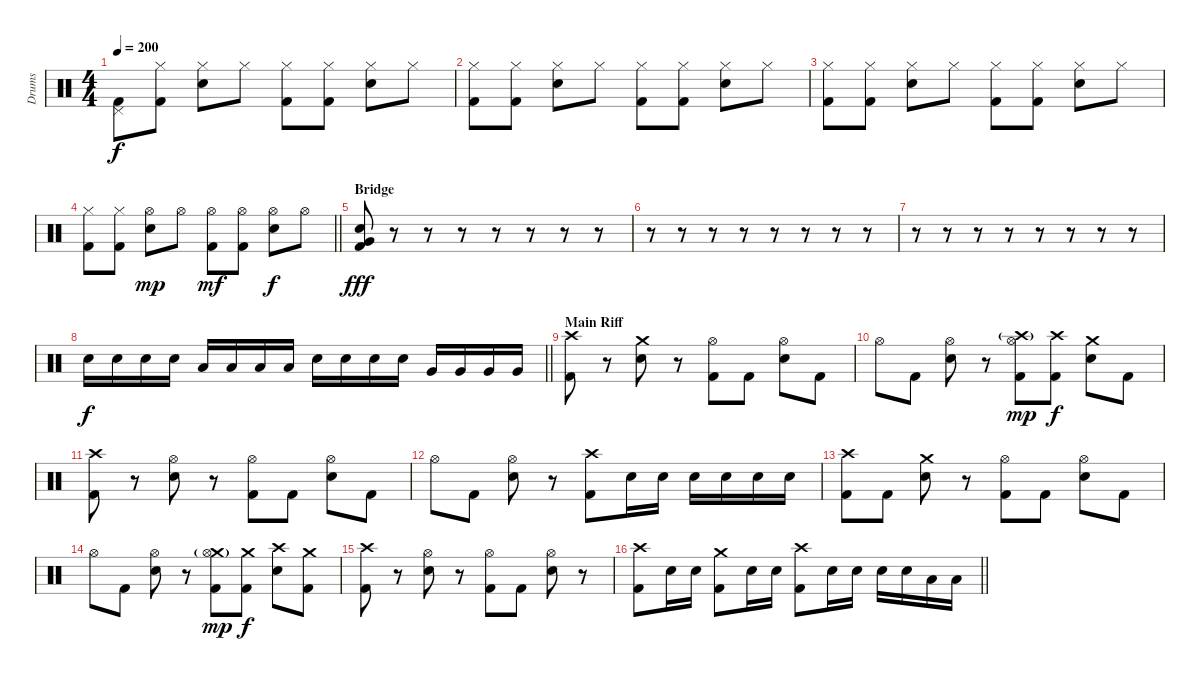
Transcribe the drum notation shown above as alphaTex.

\track ("Drums" "Drums") {instrument percussion}
\staff {score}
\articulation defaults
\ts (4 4)
\tempo 200
\clef neutral
\ks c
("Pedal Hi-Hat (hit)" "Kick (hit) 2").8{dy f} ("Hi-Hat (closed)" "Kick (hit) 2").8 ("Hi-Hat (closed)" "Electric Snare (hit)").8 "Hi-Hat (closed)".8 ("Hi-Hat (closed)" "Kick (hit) 2").8 ("Hi-Hat (closed)" "Kick (hit) 2").8 ("Hi-Hat (closed)" "Electric Snare (hit)").8 "Hi-Hat (closed)".8 |
("Hi-Hat (closed)" "Kick (hit) 2").8 ("Hi-Hat (closed)" "Kick (hit) 2").8 ("Hi-Hat (closed)" "Electric Snare (hit)").8 "Hi-Hat (closed)".8 ("Hi-Hat (closed)" "Kick (hit) 2").8 ("Hi-Hat (closed)" "Kick (hit) 2").8 ("Hi-Hat (closed)" "Electric Snare (hit)").8 "Hi-Hat (closed)".8 |
("Hi-Hat (closed)" "Kick (hit) 2").8 ("Hi-Hat (closed)" "Kick (hit) 2").8 ("Hi-Hat (closed)" "Electric Snare (hit)").8 "Hi-Hat (closed)".8 ("Hi-Hat (closed)" "Kick (hit) 2").8 ("Hi-Hat (closed)" "Kick (hit) 2").8 ("Hi-Hat (closed)" "Electric Snare (hit)").8 "Hi-Hat (closed)".8 |
\barLineRight lightlight
("Hi-Hat (closed)" "Kick (hit) 2").8 ("Hi-Hat (closed)" "Kick (hit) 2").8 ("Hi-Hat (open)" "Electric Snare (hit)").8{dy mp} "Hi-Hat (open)".8 ("Hi-Hat (open)" "Kick (hit) 2").8{dy mf} ("Hi-Hat (open)" "Kick (hit) 2").8 ("Hi-Hat (open)" "Electric Snare (hit)").8{dy f} "Hi-Hat (open)".8 |
\section ("" "Bridge")
("Very Low Tom (hit)" "Electric Snare (hit)" "Kick (hit) 2").8{dy fff} r.8 r.8 r.8 r.8 r.8 r.8 r.8 |
r.8 r.8 r.8 r.8 r.8 r.8 r.8 r.8 |
r.8 r.8 r.8 r.8 r.8 r.8 r.8 r.8 |
\barLineRight lightlight "Electric Snare (hit)".16{dy f} "Electric Snare (hit)".16 "Electric Snare (hit)".16 "Electric Snare (hit)".16 "Low Tom (hit)".16 "Low Tom (hit)".16 "Low Tom (hit)".16 "Low Tom (hit)".16 "Electric Snare (hit)".16 "Electric Snare (hit)".16 "Electric Snare (hit)".16 "Electric Snare (hit)".16 "Very Low Tom (hit)".16 "Very Low Tom (hit)".16 "Very Low Tom (hit)".16 "Very Low Tom (hit)".16
|
\section ("" "Main Riff")
("Crash high (hit)" "Kick (hit) 2").8 r.8 ("Crash medium (hit)" "Electric Snare (hit)").8 r.8 ("Hi-Hat (open)" "Kick (hit) 2").8 "Kick (hit) 2".8 ("Hi-Hat (open)" "Electric Snare (hit)").8 "Kick (hit) 2".8 |
"Hi-Hat (open)".8 "Kick (hit) 2".8 ("Hi-Hat (open)" "Electric Snare (hit)").8 r.8 ("Crash high (hit)"{g} "Hi-Hat (open)" "Kick (hit) 2").8{dy mp} ("Crash high (hit)" "Kick (hit) 2").8{dy f} ("Crash medium (hit)" "Electric Snare (hit)").8 "Kick (hit) 2".8 |
("Crash high (hit)" "Kick (hit) 2").8 r.8 ("Hi-Hat (open)" "Electric Snare (hit)").8 r.8 ("Hi-Hat (open)" "Kick (hit) 2").8 "Kick (hit) 2".8 ("Hi-Hat (open)" "Electric Snare (hit)").8 "Kick (hit) 2".8 |
"Hi-Hat (open)".8 "Kick (hit) 2".8 ("Hi-Hat (open)" "Electric Snare (hit)").8 r.8 ("Crash high (hit)" "Kick (hit) 2").8 "Electric Snare (hit)".16 "Electric Snare (hit)".16 "Electric Snare (hit)".16 "Electric Snare (hit)".16 "Electric Snare (hit)".16 "Electric Snare (hit)".16 |
("Crash high (hit)" "Kick (hit) 2").8 "Kick (hit) 2".8 ("Crash medium (hit)" "Electric Snare (hit)").8 r.8 ("Hi-Hat (open)" "Kick (hit) 2").8 "Kick (hit) 2".8 ("Hi-Hat (open)" "Electric Snare (hit)").8 "Kick (hit) 2".8 |
"Hi-Hat (open)".8 "Kick (hit) 2".8 ("Hi-Hat (open)" "Electric Snare (hit)").8 r.8 ("Crash medium (hit)"{g} "Hi-Hat (open)" "Kick (hit) 2").8{dy mp} ("Crash medium (hit)" "Kick (hit) 2").8{dy f} ("Crash high (hit)" "Electric Snare (hit)").8 ("Crash medium (hit)" "Kick (hit) 2").8 |
("Crash high (hit)" "Kick (hit) 2").8 r.8 ("Hi-Hat (open)" "Electric Snare (hit)").8 r.8 ("Hi-Hat (open)" "Kick (hit) 2").8 "Kick (hit) 2".8 ("Hi-Hat (open)" "Electric Snare (hit)").8 r.8 |
\barLineRight lightlight
("Crash high (hit)" "Kick (hit) 2").8 "Electric Snare (hit)".16 "Electric Snare (hit)".16 ("Crash medium (hit)" "Kick (hit) 2").8 "Electric Snare (hit)".16 "Electric Snare (hit)".16 ("Crash high (hit)" "Kick (hit) 2").8 "Electric Snare (hit)".16 "Electric Snare (hit)".16 "Electric Snare (hit)".16 "Electric Snare (hit)".16 "Low Tom (hit)".16 "Low Tom (hit)".16
